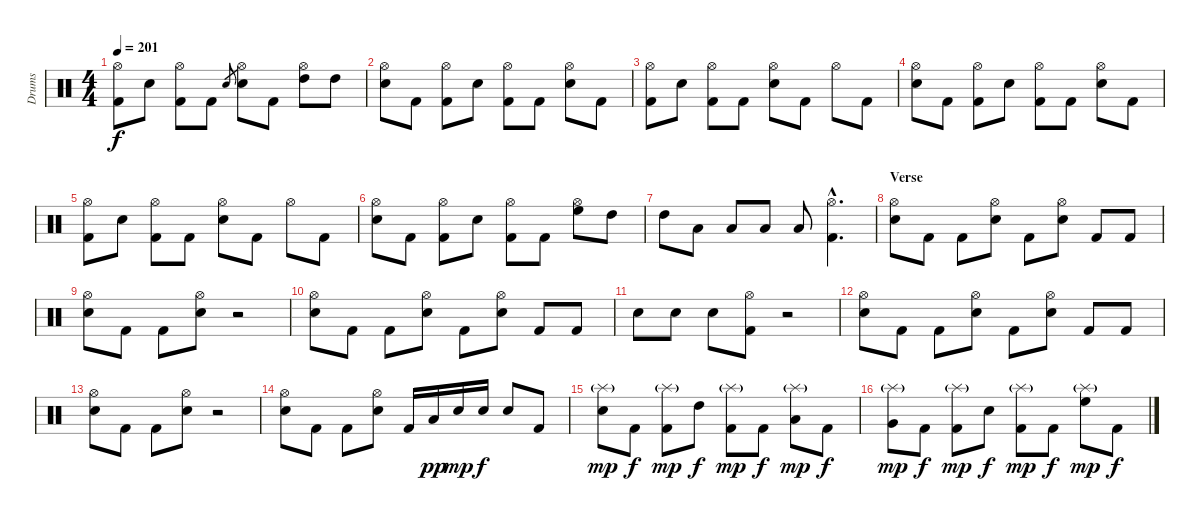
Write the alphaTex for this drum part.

\track ("Drums" "Drums") {instrument percussion}
\staff {score}
\articulation defaults
\ts (4 4)
\tempo 201
\clef neutral
\ks c
("Hi-Hat (open)" "Kick (hit) 2").8{dy f} "Snare (hit) 2".8 ("Hi-Hat (open)" "Kick (hit) 2").8 "Kick (hit) 2".8 "Snare (hit) 2".8{gr} ("Hi-Hat (open)" "Snare (hit) 2").8 "Kick (hit) 2".8 ("Hi-Hat (open)" "High Tom (hit)").8 "High Tom (hit)".8 |
("Hi-Hat (open)" "Snare (hit) 2").8 "Kick (hit) 2".8 ("Hi-Hat (open)" "Kick (hit) 2").8 "Snare (hit) 2".8 ("Hi-Hat (open)" "Kick (hit) 2").8 "Kick (hit) 2".8 ("Hi-Hat (open)" "Snare (hit) 2").8 "Kick (hit) 2".8 |
("Hi-Hat (open)" "Kick (hit) 2").8 "Snare (hit) 2".8 ("Hi-Hat (open)" "Kick (hit) 2").8 "Kick (hit) 2".8 ("Hi-Hat (open)" "Snare (hit) 2").8 "Kick (hit) 2".8 "Hi-Hat (open)".8 "Kick (hit) 2".8 |
("Hi-Hat (open)" "Snare (hit) 2").8 "Kick (hit) 2".8 ("Hi-Hat (open)" "Kick (hit) 2").8 "Snare (hit) 2".8 ("Hi-Hat (open)" "Kick (hit) 2").8 "Kick (hit) 2".8 ("Hi-Hat (open)" "Snare (hit) 2").8 "Kick (hit) 2".8 |
("Hi-Hat (open)" "Kick (hit) 2").8 "Snare (hit) 2".8 ("Hi-Hat (open)" "Kick (hit) 2").8 "Kick (hit) 2".8 ("Hi-Hat (open)" "Snare (hit) 2").8 "Kick (hit) 2".8 "Hi-Hat (open)".8 "Kick (hit) 2".8 |
("Hi-Hat (open)" "Snare (hit) 2").8 "Kick (hit) 2".8 ("Hi-Hat (open)" "Kick (hit) 2").8 "Snare (hit) 2".8 ("Hi-Hat (open)" "Kick (hit) 2").8 "Kick (hit) 2".8 ("Hi-Hat (open)" "High Floor Tom (hit)").8 "High Tom (hit)".8 |
"High Tom (hit)".8 "Low Tom (hit)".8 "Low Tom (hit)".8 "Low Tom (hit)".8 "Low Tom (hit)".8 ("Hi-Hat (open)"{hac} "Kick (hit) 2"{hac}).4{d} |
\section ("" "Verse")
("Hi-Hat (open)" "Snare (hit) 2").8 "Kick (hit) 2".8 "Kick (hit) 2".8 ("Hi-Hat (open)" "Snare (hit) 2").8 "Kick (hit) 2".8 ("Hi-Hat (open)" "Snare (hit) 2").8 "Kick (hit) 2".8 "Kick (hit) 2".8 |
("Hi-Hat (open)" "Snare (hit) 2").8 "Kick (hit) 2".8 "Kick (hit) 2".8 ("Hi-Hat (open)" "Snare (hit) 2").8 r.2 |
("Hi-Hat (open)" "Snare (hit) 2").8 "Kick (hit) 2".8 "Kick (hit) 2".8 ("Hi-Hat (open)" "Snare (hit) 2").8 "Kick (hit) 2".8 ("Hi-Hat (open)" "Snare (hit) 2").8 "Kick (hit) 2".8 "Kick (hit) 2".8 |
"Snare (hit) 2".8 "Snare (hit) 2".8 "Snare (hit) 2".8 ("Hi-Hat (open)" "Kick (hit) 2").8 r.2 |
("Hi-Hat (open)" "Snare (hit) 2").8 "Kick (hit) 2".8 "Kick (hit) 2".8 ("Hi-Hat (open)" "Snare (hit) 2").8 "Kick (hit) 2".8 ("Hi-Hat (open)" "Snare (hit) 2").8 "Kick (hit) 2".8 "Kick (hit) 2".8 |
("Hi-Hat (open)" "Snare (hit) 2").8 "Kick (hit) 2".8 "Kick (hit) 2".8 ("Hi-Hat (open)" "Snare (hit) 2").8 r.2 |
("Hi-Hat (open)" "Snare (hit) 2").8 "Kick (hit) 2".8 "Kick (hit) 2".8 ("Hi-Hat (open)" "Snare (hit) 2").8 "Kick (hit) 2".16 "Low Tom (hit)".16{dy pp} "Snare (hit) 2".16{dy mp} "Snare (hit) 2".16{dy f} "Snare (hit) 2".8 "Kick (hit) 2".8 |
("Splash (hit)"{g} "Snare (hit) 2").8{dy mp} "Kick (hit) 2".8{dy f} ("Splash (hit)"{g} "Kick (hit) 2").8{dy mp} "High Tom (hit)".8{dy f} ("Splash (hit)"{g} "Kick (hit) 2").8{dy mp} "Kick (hit) 2".8{dy f} ("Splash (hit)"{g} "Low Tom (hit)").8{dy mp} "Kick (hit) 2".8{dy f} |
("Splash (hit)"{g} "Very Low Tom (hit)").8{dy mp} "Kick (hit) 2".8{dy f} ("Splash (hit)"{g} "Kick (hit) 2").8{dy mp} "Snare (hit) 2".8{dy f} ("Splash (hit)"{g} "Kick (hit) 2").8{dy mp} "Kick (hit) 2".8{dy f} ("Splash (hit)"{g} "High Floor Tom (hit)").8{dy mp} "Kick (hit) 2".8{dy f}
